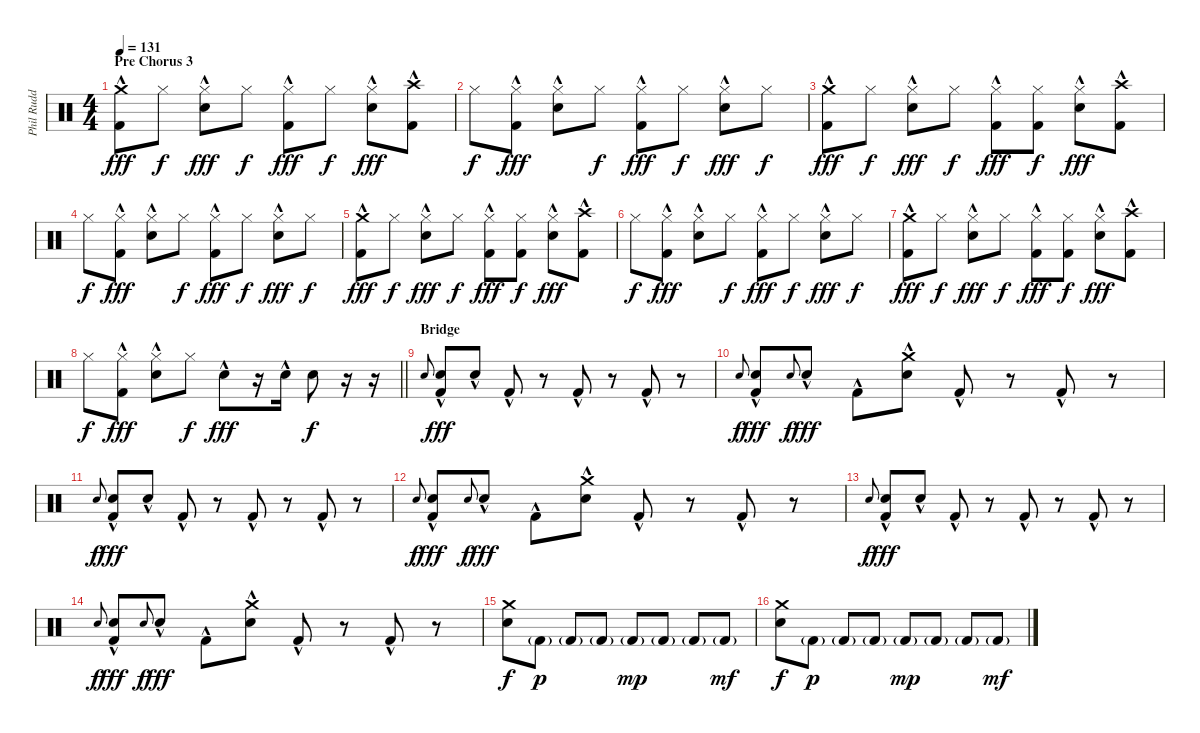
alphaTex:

\track ("Phil Rudd" "Phil Rudd") {instrument percussion}
\staff {score}
\articulation defaults
\ts (4 4)
\section ("" "Pre Chorus 3")
\tempo 131
\clef neutral
\ks c
("Crash medium (hit)" "Kick (hit) 2"{hac}).8{dy fff} "Hi-Hat (closed)".8{dy f} ("Hi-Hat (closed)" "Electric Snare (hit)"{hac}).8{dy fff} "Hi-Hat (closed)".8{dy f} ("Hi-Hat (closed)" "Kick (hit) 2"{hac}).8{dy fff} "Hi-Hat (closed)".8{dy f} ("Hi-Hat (closed)" "Electric Snare (hit)"{hac}).8{dy fff} ("Crash high (hit)" "Kick (hit) 2"{hac}).8 |
"Hi-Hat (closed)".8{dy f} ("Hi-Hat (closed)" "Kick (hit) 2"{hac}).8{dy fff} ("Hi-Hat (closed)" "Electric Snare (hit)"{hac}).8 "Hi-Hat (closed)".8{dy f} ("Hi-Hat (closed)" "Kick (hit) 2"{hac}).8{dy fff} "Hi-Hat (closed)".8{dy f} ("Hi-Hat (closed)" "Electric Snare (hit)"{hac}).8{dy fff} "Hi-Hat (closed)".8{dy f} |
("Crash medium (hit)" "Kick (hit) 2"{hac}).8{dy fff} "Hi-Hat (closed)".8{dy f} ("Hi-Hat (closed)" "Electric Snare (hit)"{hac}).8{dy fff} "Hi-Hat (closed)".8{dy f} ("Hi-Hat (closed)" "Kick (hit) 2"{hac}).8{dy fff} ("Hi-Hat (closed)" "Kick (hit) 2").8{dy f} ("Hi-Hat (closed)" "Electric Snare (hit)"{hac}).8{dy fff} ("Crash high (hit)" "Kick (hit) 2"{hac}).8 |
"Hi-Hat (closed)".8{dy f} ("Hi-Hat (closed)" "Kick (hit) 2"{hac}).8{dy fff} ("Hi-Hat (closed)" "Electric Snare (hit)"{hac}).8 "Hi-Hat (closed)".8{dy f} ("Hi-Hat (closed)" "Kick (hit) 2"{hac}).8{dy fff} "Hi-Hat (closed)".8{dy f} ("Hi-Hat (closed)" "Electric Snare (hit)"{hac}).8{dy fff} "Hi-Hat (closed)".8{dy f} |
("Crash medium (hit)" "Kick (hit) 2"{hac}).8{dy fff} "Hi-Hat (closed)".8{dy f} ("Hi-Hat (closed)" "Electric Snare (hit)"{hac}).8{dy fff} "Hi-Hat (closed)".8{dy f} ("Hi-Hat (closed)" "Kick (hit) 2"{hac}).8{dy fff} ("Hi-Hat (closed)" "Kick (hit) 2").8{dy f} ("Hi-Hat (closed)" "Electric Snare (hit)"{hac}).8{dy fff} ("Crash high (hit)" "Kick (hit) 2"{hac}).8 |
"Hi-Hat (closed)".8{dy f} ("Hi-Hat (closed)" "Kick (hit) 2"{hac}).8{dy fff} ("Hi-Hat (closed)" "Electric Snare (hit)"{hac}).8 "Hi-Hat (closed)".8{dy f} ("Hi-Hat (closed)" "Kick (hit) 2"{hac}).8{dy fff} "Hi-Hat (closed)".8{dy f} ("Hi-Hat (closed)" "Electric Snare (hit)"{hac}).8{dy fff} "Hi-Hat (closed)".8{dy f} |
("Crash medium (hit)" "Kick (hit) 2"{hac}).8{dy fff} "Hi-Hat (closed)".8{dy f} ("Hi-Hat (closed)" "Electric Snare (hit)"{hac}).8{dy fff} "Hi-Hat (closed)".8{dy f} ("Hi-Hat (closed)" "Kick (hit) 2"{hac}).8{dy fff} ("Hi-Hat (closed)" "Kick (hit) 2").8{dy f} ("Hi-Hat (closed)" "Electric Snare (hit)"{hac}).8{dy fff} ("Crash high (hit)" "Kick (hit) 2"{hac}).8 |
\barLineRight lightlight "Hi-Hat (closed)".8{dy f}
("Hi-Hat (closed)" "Kick (hit) 2"{hac}).8{dy fff} ("Hi-Hat (closed)" "Electric Snare (hit)"{hac}).8 "Hi-Hat (closed)".8{dy f} "Electric Snare (hit)"{hac}.8{dy fff} r.16 "Electric Snare (hit)"{hac}.16 "Electric Snare (hit)".8{dy f} r.16 r.16 |
\section ("" "Bridge")
"Electric Snare (hit)".8{gr onbeat} ("Electric Snare (hit)"{hac} "Kick (hit) 2").8{dy fff} "Electric Snare (hit)"{hac}.8 "Kick (hit) 2"{hac}.8 r.8 "Kick (hit) 2"{hac}.8 r.8 "Kick (hit) 2"{hac}.8 r.8 |
"Electric Snare (hit)".8{gr onbeat dy f} ("Electric Snare (hit)"{hac} "Kick (hit) 2"{hac}).8{dy fff} "Electric Snare (hit)".8{gr onbeat dy f} "Electric Snare (hit)"{hac}.8{dy fff} "Kick (hit) 2"{hac}.8 ("Crash medium (hit)" "Electric Snare (hit)"{hac}).8 "Kick (hit) 2"{hac}.8 r.8 "Kick (hit) 2"{hac}.8 r.8 |
"Electric Snare (hit)".8{gr onbeat dy f} ("Electric Snare (hit)"{hac} "Kick (hit) 2"{hac}).8{dy fff} "Electric Snare (hit)"{hac}.8 "Kick (hit) 2"{hac}.8 r.8 "Kick (hit) 2"{hac}.8 r.8 "Kick (hit) 2"{hac}.8 r.8 |
"Electric Snare (hit)".8{gr onbeat dy f} ("Electric Snare (hit)"{hac} "Kick (hit) 2"{hac}).8{dy fff} "Electric Snare (hit)".8{gr onbeat dy f} "Electric Snare (hit)"{hac}.8{dy fff} "Kick (hit) 2"{hac}.8 ("Crash medium (hit)" "Electric Snare (hit)"{hac}).8 "Kick (hit) 2"{hac}.8 r.8 "Kick (hit) 2"{hac}.8 r.8 |
"Electric Snare (hit)".8{gr onbeat dy f} ("Electric Snare (hit)"{hac} "Kick (hit) 2").8{dy fff} "Electric Snare (hit)"{hac}.8 "Kick (hit) 2"{hac}.8 r.8 "Kick (hit) 2"{hac}.8 r.8 "Kick (hit) 2"{hac}.8 r.8 |
"Electric Snare (hit)".8{gr onbeat dy f} ("Electric Snare (hit)"{hac} "Kick (hit) 2"{hac}).8{dy fff} "Electric Snare (hit)".8{gr onbeat dy f} "Electric Snare (hit)"{hac}.8{dy fff} "Kick (hit) 2"{hac}.8 ("Crash medium (hit)" "Electric Snare (hit)"{hac}).8 "Kick (hit) 2"{hac}.8 r.8 "Kick (hit) 2"{hac}.8 r.8 |
("Crash medium (hit)" "Electric Snare (hit)").8{dy f} "Kick (hit) 2"{g}.8{dy p} "Kick (hit) 2"{g}.8 "Kick (hit) 2"{g}.8 "Kick (hit) 2"{g}.8{dy mp} "Kick (hit) 2"{g}.8 "Kick (hit) 2"{g}.8 "Kick (hit) 2"{g}.8{dy mf} |
("Crash medium (hit)" "Electric Snare (hit)").8{dy f} "Kick (hit) 2"{g}.8{dy p} "Kick (hit) 2"{g}.8 "Kick (hit) 2"{g}.8 "Kick (hit) 2"{g}.8{dy mp} "Kick (hit) 2"{g}.8 "Kick (hit) 2"{g}.8 "Kick (hit) 2"{g}.8{dy mf}
